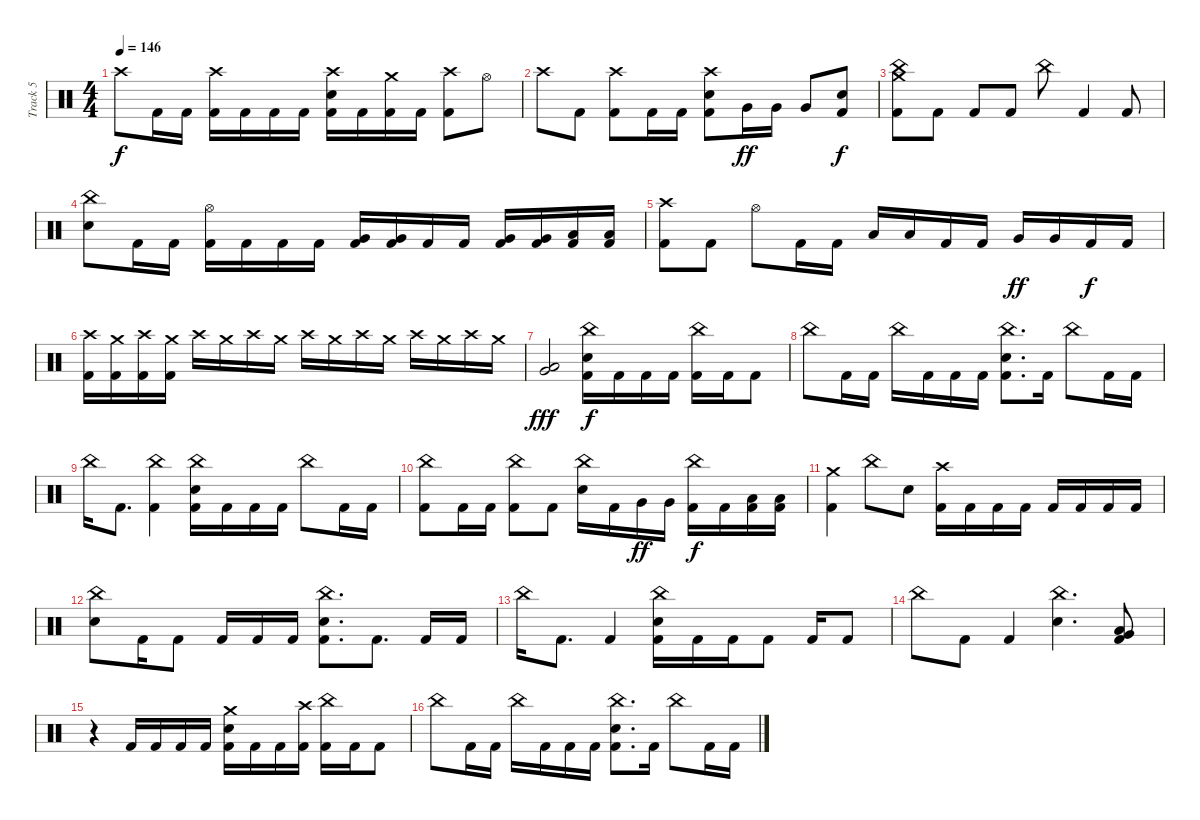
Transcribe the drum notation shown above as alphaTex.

\track ("Track 5" "Track 5") {instrument percussion}
\staff {score}
\articulation defaults
\ts (4 4)
\tempo 146
\clef neutral
\ks c "Crash high (hit)".8{dy f} "Kick (hit) 2".16 "Kick (hit) 2".16
("Crash high (hit)" "Kick (hit) 2").16 "Kick (hit) 2".16 "Kick (hit) 2".16 "Kick (hit) 2".16 ("Crash high (hit)" "Electric Snare (hit)" "Kick (hit) 2").16 "Kick (hit) 2".16 ("Crash medium (hit)" "Kick (hit) 2").16 "Kick (hit) 2".16 ("Crash high (hit)" "Kick (hit) 2").8 "Hi-Hat (open)".8 |
"Crash high (hit)".8 "Kick (hit) 2".8 ("Crash high (hit)" "Kick (hit) 2").8 "Kick (hit) 2".16 "Kick (hit) 2".16 ("Crash high (hit)" "Electric Snare (hit)" "Kick (hit) 2").8 "Very Low Tom (hit)".16{dy ff} "Very Low Tom (hit)".16 "Very Low Tom (hit)".8 ("Electric Snare (hit)" "Kick (hit) 2").8{dy f} |
("Crash medium (hit)" "China (hit)" "Kick (hit) 2").8 "Kick (hit) 2".8 "Kick (hit) 2".8 "Kick (hit) 2".8 "China (hit)".8 "Kick (hit) 2".4 "Kick (hit) 2".8 |
("China (hit)" "Electric Snare (hit)").8 "Kick (hit) 2".16 "Kick (hit) 2".16 ("Hi-Hat (open)" "Kick (hit) 2").16 "Kick (hit) 2".16 "Kick (hit) 2".16 "Kick (hit) 2".16 ("Very Low Tom (hit)" "Kick (hit) 2").16 ("Very Low Tom (hit)" "Kick (hit) 2").16 "Kick (hit) 2".16 "Kick (hit) 2".16 ("Very Low Tom (hit)" "Kick (hit) 2").16 ("Very Low Tom (hit)" "Kick (hit) 2").16 ("Low Floor Tom (hit)" "Kick (hit) 2").16 ("Low Floor Tom (hit)" "Kick (hit) 2").16 |
("Crash high (hit)" "Kick (hit) 2").8 "Kick (hit) 2".8 "Hi-Hat (open)".8 "Kick (hit) 2".16 "Kick (hit) 2".16 "Low Tom (hit)".16 "Low Tom (hit)".16 "Kick (hit) 2".16 "Kick (hit) 2".16 "Very Low Tom (hit)".16{dy ff} "Very Low Tom (hit)".16 "Kick (hit) 2".16{dy f} "Kick (hit) 2".16 |
("Crash high (hit)" "Kick (hit) 2").16 ("Crash medium (hit)" "Kick (hit) 2").16 ("Crash high (hit)" "Kick (hit) 2").16 ("Crash medium (hit)" "Kick (hit) 2").16 "Crash high (hit)".16 "Crash medium (hit)".16 "Crash high (hit)".16 "Crash medium (hit)".16 "Crash high (hit)".16 "Crash medium (hit)".16 "Crash high (hit)".16 "Crash medium (hit)".16 "Crash high (hit)".16 "Crash medium (hit)".16 "Crash high (hit)".16 "Crash medium (hit)".16 |
("Very Low Tom (hit)" "Low Floor Tom (hit)").2{dy fff} ("China (hit)" "Electric Snare (hit)" "Kick (hit) 2").16{dy f} "Kick (hit) 2".16 "Kick (hit) 2".16 "Kick (hit) 2".16 ("China (hit)" "Kick (hit) 2").16 "Kick (hit) 2".16 "Kick (hit) 2".8 |
"China (hit)".8 "Kick (hit) 2".16 "Kick (hit) 2".16 "China (hit)".16 "Kick (hit) 2".16 "Kick (hit) 2".16 "Kick (hit) 2".16 ("China (hit)" "Electric Snare (hit)" "Kick (hit) 2").8{d} "Kick (hit) 2".16 "China (hit)".8 "Kick (hit) 2".16 "Kick (hit) 2".16 |
"China (hit)".16 "Kick (hit) 2".8{d} ("China (hit)" "Kick (hit) 2").4 ("China (hit)" "Electric Snare (hit)" "Kick (hit) 2").16 "Kick (hit) 2".16 "Kick (hit) 2".16 "Kick (hit) 2".16 "China (hit)".8 "Kick (hit) 2".16 "Kick (hit) 2".16 |
("China (hit)" "Kick (hit) 2").8 "Kick (hit) 2".16 "Kick (hit) 2".16 ("China (hit)" "Kick (hit) 2").8 "Kick (hit) 2".8 ("China (hit)" "Electric Snare (hit)").16 "Kick (hit) 2".16 "Very Low Tom (hit)".16{dy ff} "Very Low Tom (hit)".16 ("China (hit)" "Kick (hit) 2").16{dy f} "Kick (hit) 2".16 ("Low Floor Tom (hit)" "Kick (hit) 2").16 ("Low Floor Tom (hit)" "Kick (hit) 2").16 |
("Crash medium (hit)" "Kick (hit) 2").4 "China (hit)".8 "Electric Snare (hit)".8 ("Crash high (hit)" "Kick (hit) 2").16 "Kick (hit) 2".16 "Kick (hit) 2".16 "Kick (hit) 2".16 "Kick (hit) 2".16 "Kick (hit) 2".16 "Kick (hit) 2".16 "Kick (hit) 2".16 |
("China (hit)" "Electric Snare (hit)").8 "Kick (hit) 2".16 "Kick (hit) 2".8 "Kick (hit) 2".16 "Kick (hit) 2".16 "Kick (hit) 2".16 ("China (hit)" "Electric Snare (hit)" "Kick (hit) 2").8{d} "Kick (hit) 2".8{d} "Kick (hit) 2".16 "Kick (hit) 2".16 |
"China (hit)".16 "Kick (hit) 2".8{d} "Kick (hit) 2".4 ("China (hit)" "Electric Snare (hit)" "Kick (hit) 2").16 "Kick (hit) 2".16 "Kick (hit) 2".16 "Kick (hit) 2".8 "Kick (hit) 2".16 "Kick (hit) 2".8 |
"China (hit)".8 "Kick (hit) 2".8 "Kick (hit) 2".4 ("China (hit)" "Electric Snare (hit)").4{d} ("Very Low Tom (hit)" "Low Floor Tom (hit)" "Kick (hit) 2").8 |
r.4 "Kick (hit) 2".16 "Kick (hit) 2".16 "Kick (hit) 2".16 "Kick (hit) 2".16 ("Crash medium (hit)" "Electric Snare (hit)" "Kick (hit) 2").16 "Kick (hit) 2".16 "Kick (hit) 2".16 ("Crash high (hit)" "Kick (hit) 2").16 ("China (hit)" "Kick (hit) 2").16 "Kick (hit) 2".16 "Kick (hit) 2".8 |
"China (hit)".8 "Kick (hit) 2".16 "Kick (hit) 2".16 "China (hit)".16 "Kick (hit) 2".16 "Kick (hit) 2".16 "Kick (hit) 2".16 ("China (hit)" "Electric Snare (hit)" "Kick (hit) 2").8{d} "Kick (hit) 2".16 "China (hit)".8 "Kick (hit) 2".16 "Kick (hit) 2".16
